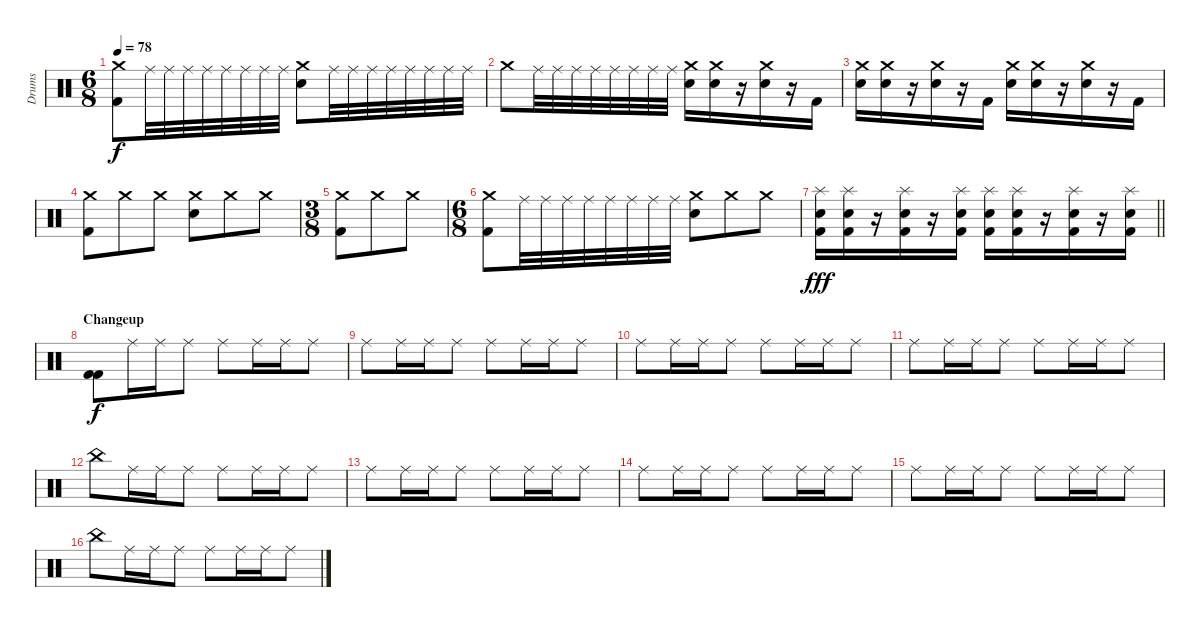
\track ("Drums" "Drums") {instrument percussion}
\staff {score}
\articulation defaults
\ts (6 8)
\tempo 78
\clef neutral
\ks c
("Crash medium (hit)" "Kick (hit) 2").8{dy f} "Ride (middle)".32 "Ride (middle)".32 "Ride (middle)".32 "Ride (middle)".32 "Ride (middle)".32 "Ride (middle)".32 "Ride (middle)".32 "Ride (middle)".32 ("Crash medium (hit)" "Snare (hit) 2").8 "Ride (middle)".32 "Ride (middle)".32 "Ride (middle)".32 "Ride (middle)".32 "Ride (middle)".32 "Ride (middle)".32 "Ride (middle)".32 "Ride (middle)".32 |
"Crash medium (hit)".8 "Ride (middle)".32 "Ride (middle)".32 "Ride (middle)".32 "Ride (middle)".32 "Ride (middle)".32 "Ride (middle)".32 "Ride (middle)".32 "Ride (middle)".32 ("Crash medium (hit)" "Snare (hit) 2").16 ("Crash medium (hit)" "Snare (hit) 2").16 r.16 ("Crash medium (hit)" "Snare (hit) 2").16 r.16 "Kick (hit) 2".16 |
("Crash medium (hit)" "Snare (hit) 2").16 ("Crash medium (hit)" "Snare (hit) 2").16 r.16 ("Crash medium (hit)" "Snare (hit) 2").16 r.16 "Kick (hit) 2".16 ("Crash medium (hit)" "Snare (hit) 2").16 ("Crash medium (hit)" "Snare (hit) 2").16 r.16 ("Crash medium (hit)" "Snare (hit) 2").16 r.16 "Kick (hit) 2".16 |
("Crash medium (hit)" "Kick (hit) 2").8 "Crash medium (hit)".8 "Crash medium (hit)".8 ("Crash medium (hit)" "Snare (hit) 2").8 "Crash medium (hit)".8 "Crash medium (hit)".8 |
\ts (3 8)
("Crash medium (hit)" "Kick (hit) 2").8 "Crash medium (hit)".8 "Crash medium (hit)".8 |
\ts (6 8)
("Crash medium (hit)" "Kick (hit) 2").8 "Ride (middle)".32 "Ride (middle)".32 "Ride (middle)".32 "Ride (middle)".32 "Ride (middle)".32 "Ride (middle)".32 "Ride (middle)".32 "Ride (middle)".32 ("Crash medium (hit)" "Snare (hit) 2").8 "Crash medium (hit)".8 "Crash medium (hit)".8 |
\barLineRight lightlight
("Splash (hit)" "Snare (hit) 2" "Kick (hit) 2").16{dy fff} ("Splash (hit)" "Snare (hit) 2" "Kick (hit) 2").16 r.16 ("Splash (hit)" "Snare (hit) 2" "Kick (hit) 2").16 r.16 ("Splash (hit)" "Snare (hit) 2" "Kick (hit) 2").16 ("Splash (hit)" "Snare (hit) 2" "Kick (hit) 2").16 ("Splash (hit)" "Snare (hit) 2" "Kick (hit) 2").16 r.16 ("Splash (hit)" "Snare (hit) 2" "Kick (hit) 2").16 r.16 ("Splash (hit)" "Snare (hit) 2" "Kick (hit) 2").16 |
\section ("" "Changeup")
("Kick (hit) 2" "Kick (hit) 2").8{dy f} "Ride (middle)".16 "Ride (middle)".16 "Ride (middle)".8 "Ride (middle)".8 "Ride (middle)".16 "Ride (middle)".16 "Ride (middle)".8 |
"Ride (middle)".8 "Ride (middle)".16 "Ride (middle)".16 "Ride (middle)".8 "Ride (middle)".8 "Ride (middle)".16 "Ride (middle)".16 "Ride (middle)".8 |
"Ride (middle)".8 "Ride (middle)".16 "Ride (middle)".16 "Ride (middle)".8 "Ride (middle)".8 "Ride (middle)".16 "Ride (middle)".16 "Ride (middle)".8 |
"Ride (middle)".8 "Ride (middle)".16 "Ride (middle)".16 "Ride (middle)".8 "Ride (middle)".8 "Ride (middle)".16 "Ride (middle)".16 "Ride (middle)".8 |
"China (hit)".8 "Ride (middle)".16 "Ride (middle)".16 "Ride (middle)".8 "Ride (middle)".8 "Ride (middle)".16 "Ride (middle)".16 "Ride (middle)".8 |
"Ride (middle)".8 "Ride (middle)".16 "Ride (middle)".16 "Ride (middle)".8 "Ride (middle)".8 "Ride (middle)".16 "Ride (middle)".16 "Ride (middle)".8 |
"Ride (middle)".8 "Ride (middle)".16 "Ride (middle)".16 "Ride (middle)".8 "Ride (middle)".8 "Ride (middle)".16 "Ride (middle)".16 "Ride (middle)".8 |
"Ride (middle)".8 "Ride (middle)".16 "Ride (middle)".16 "Ride (middle)".8 "Ride (middle)".8 "Ride (middle)".16 "Ride (middle)".16 "Ride (middle)".8 |
"China (hit)".8 "Ride (middle)".16 "Ride (middle)".16 "Ride (middle)".8 "Ride (middle)".8 "Ride (middle)".16 "Ride (middle)".16 "Ride (middle)".8
